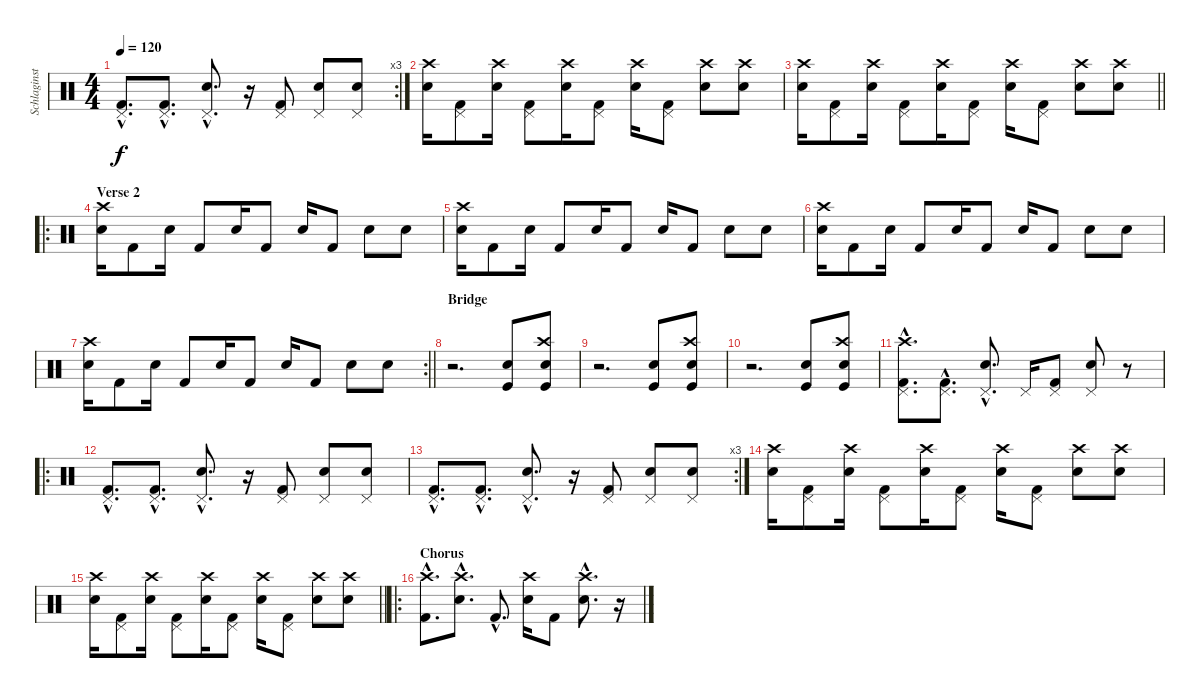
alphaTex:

\track ("Schlaginstrument" "Schlaginst") {instrument percussion}
\staff {score}
\articulation defaults
\rc 3
\ts (4 4)
\tempo 120
\clef neutral
\ks c
("Pedal Hi-Hat (hit)"{hac} "Kick (hit) 2"{hac}).8{d dy f} ("Pedal Hi-Hat (hit)"{hac} "Kick (hit) 2"{hac}).8{d} ("Pedal Hi-Hat (hit)"{hac} "Snare (hit) 2"{hac}).8{d} r.16 ("Pedal Hi-Hat (hit)" "Kick (hit) 2").8 ("Pedal Hi-Hat (hit)" "Snare (hit) 2").8 ("Pedal Hi-Hat (hit)" "Snare (hit) 2").8 |
("Crash high (hit)" "Snare (hit) 2").16 ("Pedal Hi-Hat (hit)" "Kick (hit) 2").8 ("Crash high (hit)" "Snare (hit) 2").16 ("Pedal Hi-Hat (hit)" "Kick (hit) 2").8 ("Crash high (hit)" "Snare (hit) 2").16 ("Pedal Hi-Hat (hit)" "Kick (hit) 2").8 ("Crash high (hit)" "Snare (hit) 2").16 ("Pedal Hi-Hat (hit)" "Kick (hit) 2").8 ("Crash high (hit)" "Snare (hit) 2").8 ("Crash high (hit)" "Snare (hit) 2").8 |
\barLineRight lightlight
("Crash high (hit)" "Snare (hit) 2").16 ("Pedal Hi-Hat (hit)" "Kick (hit) 2").8 ("Crash high (hit)" "Snare (hit) 2").16 ("Pedal Hi-Hat (hit)" "Kick (hit) 2").8 ("Crash high (hit)" "Snare (hit) 2").16 ("Pedal Hi-Hat (hit)" "Kick (hit) 2").8 ("Crash high (hit)" "Snare (hit) 2").16 ("Pedal Hi-Hat (hit)" "Kick (hit) 2").8 ("Crash high (hit)" "Snare (hit) 2").8 ("Crash high (hit)" "Snare (hit) 2").8 |
\ro
\section ("" "Verse 2")
("Crash high (hit)" "Snare (hit) 2").16 "Kick (hit) 2".8 "Snare (hit) 2".16 "Kick (hit) 2".8 "Snare (hit) 2".16 "Kick (hit) 2".8 "Snare (hit) 2".16 "Kick (hit) 2".8 "Snare (hit) 2".8 "Snare (hit) 2".8 |
("Crash high (hit)" "Snare (hit) 2").16 "Kick (hit) 2".8 "Snare (hit) 2".16 "Kick (hit) 2".8 "Snare (hit) 2".16 "Kick (hit) 2".8 "Snare (hit) 2".16 "Kick (hit) 2".8 "Snare (hit) 2".8 "Snare (hit) 2".8 |
("Crash high (hit)" "Snare (hit) 2").16 "Kick (hit) 2".8 "Snare (hit) 2".16 "Kick (hit) 2".8 "Snare (hit) 2".16 "Kick (hit) 2".8 "Snare (hit) 2".16 "Kick (hit) 2".8 "Snare (hit) 2".8 "Snare (hit) 2".8 |
\rc 2
\barLineRight lightlight
("Crash high (hit)" "Snare (hit) 2").16 "Kick (hit) 2".8 "Snare (hit) 2".16 "Kick (hit) 2".8 "Snare (hit) 2".16 "Kick (hit) 2".8 "Snare (hit) 2".16 "Kick (hit) 2".8 "Snare (hit) 2".8 "Snare (hit) 2".8 |
\section ("" "Bridge")
r.2{d} ("Kick (hit)" "Snare (hit) 2").8 ("Crash high (hit)" "Kick (hit)" "Snare (hit) 2").8 |
r.2{d} ("Kick (hit)" "Snare (hit) 2").8 ("Crash high (hit)" "Kick (hit)" "Snare (hit) 2").8 |
r.2{d} ("Kick (hit)" "Snare (hit) 2").8 ("Crash high (hit)" "Kick (hit)" "Snare (hit) 2").8 |
("Crash high (hit)"{hac} "Pedal Hi-Hat (hit)"{hac} "Kick (hit) 2"{hac}).8{d} ("Pedal Hi-Hat (hit)"{hac} "Kick (hit) 2"{hac}).8{d} ("Pedal Hi-Hat (hit)"{hac} "Snare (hit) 2"{hac}).8{d} "Pedal Hi-Hat (hit)".16 ("Pedal Hi-Hat (hit)" "Kick (hit) 2").8 ("Pedal Hi-Hat (hit)" "Snare (hit) 2").8 r.8 |
\ro
("Pedal Hi-Hat (hit)"{hac} "Kick (hit) 2"{hac}).8{d} ("Pedal Hi-Hat (hit)"{hac} "Kick (hit) 2"{hac}).8{d} ("Pedal Hi-Hat (hit)"{hac} "Snare (hit) 2"{hac}).8{d} r.16 ("Pedal Hi-Hat (hit)" "Kick (hit) 2").8 ("Pedal Hi-Hat (hit)" "Snare (hit) 2").8 ("Pedal Hi-Hat (hit)" "Snare (hit) 2").8 |
\rc 3
("Pedal Hi-Hat (hit)"{hac} "Kick (hit) 2"{hac}).8{d} ("Pedal Hi-Hat (hit)"{hac} "Kick (hit) 2"{hac}).8{d} ("Pedal Hi-Hat (hit)"{hac} "Snare (hit) 2"{hac}).8{d} r.16 ("Pedal Hi-Hat (hit)" "Kick (hit) 2").8 ("Pedal Hi-Hat (hit)" "Snare (hit) 2").8 ("Pedal Hi-Hat (hit)" "Snare (hit) 2").8 |
("Crash high (hit)" "Snare (hit) 2").16 ("Pedal Hi-Hat (hit)" "Kick (hit) 2").8 ("Crash high (hit)" "Snare (hit) 2").16 ("Pedal Hi-Hat (hit)" "Kick (hit) 2").8 ("Crash high (hit)" "Snare (hit) 2").16 ("Pedal Hi-Hat (hit)" "Kick (hit) 2").8 ("Crash high (hit)" "Snare (hit) 2").16 ("Pedal Hi-Hat (hit)" "Kick (hit) 2").8 ("Crash high (hit)" "Snare (hit) 2").8 ("Crash high (hit)" "Snare (hit) 2").8 |
\barLineRight lightlight
("Crash high (hit)" "Snare (hit) 2").16 ("Pedal Hi-Hat (hit)" "Kick (hit) 2").8 ("Crash high (hit)" "Snare (hit) 2").16 ("Pedal Hi-Hat (hit)" "Kick (hit) 2").8 ("Crash high (hit)" "Snare (hit) 2").16 ("Pedal Hi-Hat (hit)" "Kick (hit) 2").8 ("Crash high (hit)" "Snare (hit) 2").16 ("Pedal Hi-Hat (hit)" "Kick (hit) 2").8 ("Crash high (hit)" "Snare (hit) 2").8 ("Crash high (hit)" "Snare (hit) 2").8 |
\ro
\section ("" "Chorus")
("Crash high (hit)"{hac} "Kick (hit) 2"{hac}).8{d} ("Crash high (hit)"{hac} "Snare (hit) 2"{hac}).8{d} "Kick (hit) 2"{hac}.8{d} ("Crash high (hit)" "Snare (hit) 2").16 "Kick (hit) 2".8 ("Crash high (hit)"{hac} "Snare (hit) 2"{hac}).8{d} r.16
